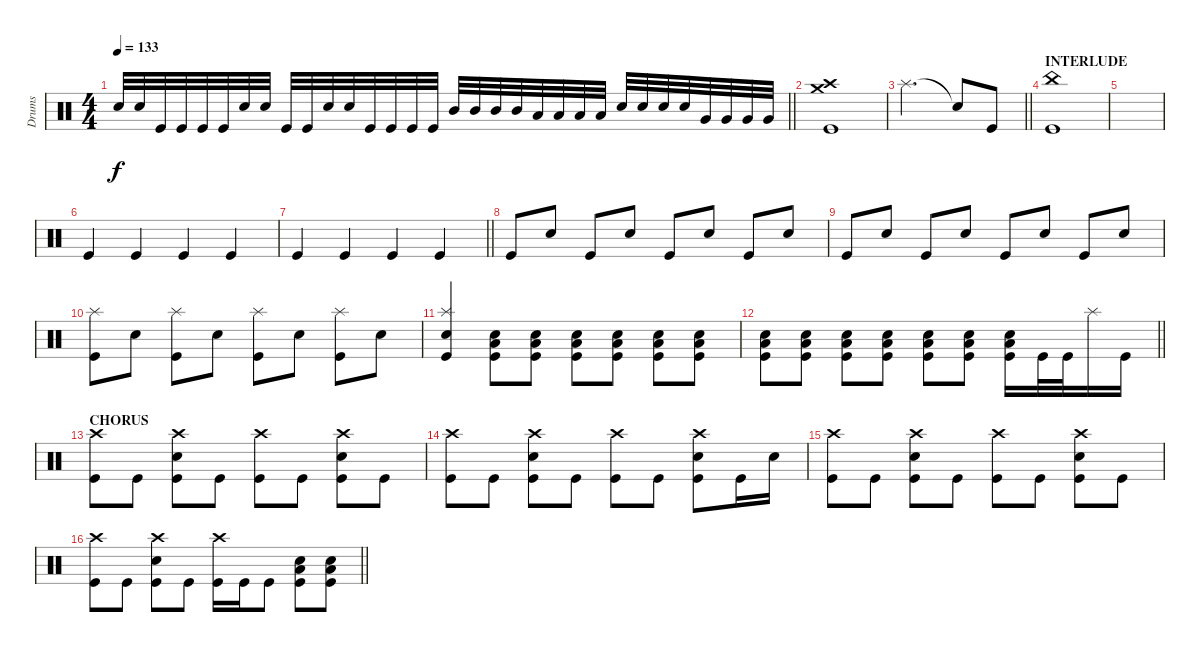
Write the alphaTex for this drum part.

\track ("Drums" "Drums") {instrument percussion}
\staff
\articulation defaults
\ts (4 4)
\tempo 133
\clef neutral
\barLineRight lightlight
\ks c "Electric Snare (hit)".32{dy f} "Electric Snare (hit)".32 "Kick (hit)".32 "Kick (hit)".32 "Kick (hit)".32 "Kick (hit)".32 "Electric Snare (hit)".32 "Electric Snare (hit)".32 "Kick (hit)".32 "Kick (hit)".32 "Electric Snare (hit)".32 "Electric Snare (hit)".32 "Kick (hit)".32 "Kick (hit)".32 "Kick (hit)".32 "Kick (hit)".32 "Mid Tom (hit)".32 "Mid Tom (hit)".32 "Mid Tom (hit)".32 "Mid Tom (hit)".32 "Low Tom (hit)".32 "Low Tom (hit)".32 "Low Tom (hit)".32 "Low Tom (hit)".32 "Electric Snare (hit)".32 "Electric Snare (hit)".32 "Electric Snare (hit)".32 "Electric Snare (hit)".32 "Very Low Tom (hit)".32 "Very Low Tom (hit)".32 "Very Low Tom (hit)".32 "Very Low Tom (hit)".32
|
("Crash high (hit)" "Crash medium (hit)" "Kick (hit)").1 |
\barLineRight lightlight "Splash (hit)".2{d} "Snare (hit)"{t}.8 "Kick (hit)".8
|
\section ("" "INTERLUDE")
("China (hit)" "Kick (hit)").1 |
|
"Kick (hit)".4 "Kick (hit)".4 "Kick (hit)".4 "Kick (hit)".4 |
\barLineRight lightlight "Kick (hit)".4 "Kick (hit)".4 "Kick (hit)".4 "Kick (hit)".4
|
"Kick (hit)".8 "Hand Clap (hit)".8 "Kick (hit)".8 "Hand Clap (hit)".8 "Kick (hit)".8 "Hand Clap (hit)".8 "Kick (hit)".8 "Hand Clap (hit)".8 |
"Kick (hit)".8 "Hand Clap (hit)".8 "Kick (hit)".8 "Hand Clap (hit)".8 "Kick (hit)".8 "Hand Clap (hit)".8 "Kick (hit)".8 "Hand Clap (hit)".8 |
("Splash (hit)" "Kick (hit)").8 "Hand Clap (hit)".8 ("Splash (hit)" "Kick (hit)").8 "Hand Clap (hit)".8 ("Splash (hit)" "Kick (hit)").8 "Hand Clap (hit)".8 ("Splash (hit)" "Kick (hit)").8 "Hand Clap (hit)".8 |
("Splash (hit)" "Hand Clap (hit)" "Kick (hit)").4 ("Low Floor Tom (hit)" "Electric Snare (hit)" "Kick (hit)").8{volume 7} ("Low Floor Tom (hit)" "Electric Snare (hit)" "Kick (hit)").8{volume 14} ("Low Floor Tom (hit)" "Electric Snare (hit)" "Kick (hit)").8 ("Low Floor Tom (hit)" "Electric Snare (hit)" "Kick (hit)").8 ("Low Floor Tom (hit)" "Electric Snare (hit)" "Kick (hit)").8 ("Low Floor Tom (hit)" "Electric Snare (hit)" "Kick (hit)").8 |
\barLineRight lightlight
("Low Floor Tom (hit)" "Electric Snare (hit)" "Kick (hit)").8 ("Low Floor Tom (hit)" "Electric Snare (hit)" "Kick (hit)").8 ("Low Floor Tom (hit)" "Electric Snare (hit)" "Kick (hit)").8 ("Low Floor Tom (hit)" "Electric Snare (hit)" "Kick (hit)").8 ("Low Floor Tom (hit)" "Electric Snare (hit)" "Kick (hit)").8 ("Low Floor Tom (hit)" "Electric Snare (hit)" "Kick (hit)").8 ("Low Floor Tom (hit)" "Electric Snare (hit)" "Kick (hit)").16 "Kick (hit)".32 "Kick (hit)".32 "Splash (hit)".16 "Kick (hit)".16 |
\section ("" "CHORUS")
("Crash high (hit)" "Kick (hit)").8 "Kick (hit)".8 ("Crash high (hit)" "Electric Snare (hit)" "Kick (hit)").8 "Kick (hit)".8 ("Crash high (hit)" "Kick (hit)").8 "Kick (hit)".8 ("Crash high (hit)" "Electric Snare (hit)" "Kick (hit)").8 "Kick (hit)".8 |
("Crash high (hit)" "Kick (hit)").8 "Kick (hit)".8 ("Crash high (hit)" "Electric Snare (hit)" "Kick (hit)").8 "Kick (hit)".8 ("Crash high (hit)" "Kick (hit)").8 "Kick (hit)".8 ("Crash high (hit)" "Electric Snare (hit)" "Kick (hit)").8 "Kick (hit)".16 "Electric Snare (hit)".16 |
("Crash high (hit)" "Kick (hit)").8 "Kick (hit)".8 ("Crash high (hit)" "Electric Snare (hit)" "Kick (hit)").8 "Kick (hit)".8 ("Crash high (hit)" "Kick (hit)").8 "Kick (hit)".8 ("Crash high (hit)" "Electric Snare (hit)" "Kick (hit)").8 "Kick (hit)".8 |
\barLineRight lightlight
("Crash high (hit)" "Kick (hit)").8 "Kick (hit)".8 ("Crash high (hit)" "Electric Snare (hit)" "Kick (hit)").8 "Kick (hit)".8 ("Crash high (hit)" "Kick (hit)").16 "Kick (hit)".16 "Kick (hit)".8 ("Low Floor Tom (hit)" "Electric Snare (hit)" "Kick (hit)").8 ("Low Floor Tom (hit)" "Electric Snare (hit)" "Kick (hit)").8
